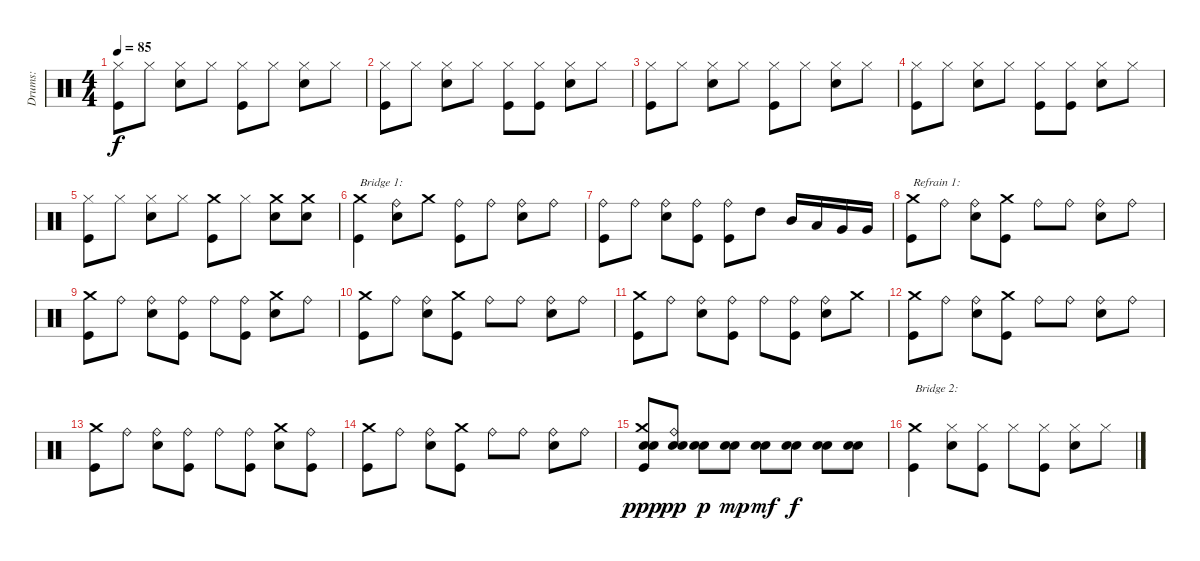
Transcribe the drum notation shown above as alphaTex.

\track ("Drums:" "Drums:") {instrument percussion}
\staff {score}
\articulation defaults
\ts (4 4)
\tempo 85
\clef neutral
\ks c
("Hi-Hat (closed)" "Kick (hit)").8{dy f} "Hi-Hat (closed)".8 ("Hi-Hat (closed)" "Snare (hit) 2").8 "Hi-Hat (closed)".8 ("Hi-Hat (closed)" "Kick (hit)").8 "Hi-Hat (closed)".8 ("Hi-Hat (closed)" "Snare (hit) 2").8 "Hi-Hat (closed)".8 |
("Hi-Hat (closed)" "Kick (hit)").8 "Hi-Hat (closed)".8 ("Hi-Hat (closed)" "Snare (hit) 2").8 "Hi-Hat (closed)".8 ("Hi-Hat (closed)" "Kick (hit)").8 ("Hi-Hat (closed)" "Kick (hit)").8 ("Hi-Hat (closed)" "Snare (hit) 2").8 "Hi-Hat (closed)".8 |
("Hi-Hat (closed)" "Kick (hit)").8 "Hi-Hat (closed)".8 ("Hi-Hat (closed)" "Snare (hit) 2").8 "Hi-Hat (closed)".8 ("Hi-Hat (closed)" "Kick (hit)").8 "Hi-Hat (closed)".8 ("Hi-Hat (closed)" "Snare (hit) 2").8 "Hi-Hat (closed)".8 |
("Hi-Hat (closed)" "Kick (hit)").8 "Hi-Hat (closed)".8 ("Hi-Hat (closed)" "Snare (hit) 2").8 "Hi-Hat (closed)".8 ("Hi-Hat (closed)" "Kick (hit)").8 ("Hi-Hat (closed)" "Kick (hit)").8 ("Hi-Hat (closed)" "Snare (hit) 2").8 "Hi-Hat (closed)".8 |
("Hi-Hat (closed)" "Kick (hit)").8 "Hi-Hat (closed)".8 ("Hi-Hat (closed)" "Snare (hit) 2").8 "Hi-Hat (closed)".8 ("Crash medium (hit)" "Kick (hit)").8 "Hi-Hat (closed)".8 ("Crash medium (hit)" "Snare (hit) 2").8 ("Crash medium (hit)" "Snare (hit) 2").8 |
("Crash medium (hit)" "Kick (hit)").4{txt "Bridge 1:"} ("Ride (bell)" "Snare (hit) 2").8 "Crash medium (hit)".8 ("Ride (bell)" "Kick (hit)").8 "Ride (bell)".8 ("Ride (bell)" "Snare (hit) 2").8 "Ride (bell)".8 |
("Ride (bell)" "Kick (hit)").8 "Ride (bell)".8 ("Ride (bell)" "Snare (hit) 2").8 ("Ride (bell)" "Kick (hit)").8 ("Ride (bell)" "Kick (hit)").8 "High Tom (hit)".8 "Mid Tom (hit)".16 "Low Tom (hit)".16 "Very Low Tom (hit)".16 "Very Low Tom (hit)".16 |
("Crash medium (hit)" "Kick (hit)").8{txt "Refrain 1:"} "Ride (bell)".8 ("Ride (bell)" "Snare (hit) 2").8 ("Crash medium (hit)" "Kick (hit)").8 "Ride (bell)".8 "Ride (bell)".8 ("Ride (bell)" "Snare (hit) 2").8 "Ride (bell)".8 |
("Crash medium (hit)" "Kick (hit)").8 "Ride (bell)".8 ("Ride (bell)" "Snare (hit) 2").8 ("Ride (bell)" "Kick (hit)").8 "Ride (bell)".8 ("Ride (bell)" "Kick (hit)").8 ("Crash medium (hit)" "Snare (hit) 2").8 "Ride (bell)".8 |
("Crash medium (hit)" "Kick (hit)").8 "Ride (bell)".8 ("Ride (bell)" "Snare (hit) 2").8 ("Crash medium (hit)" "Kick (hit)").8 "Ride (bell)".8 "Ride (bell)".8 ("Ride (bell)" "Snare (hit) 2").8 "Ride (bell)".8 |
("Crash medium (hit)" "Kick (hit)").8 "Ride (bell)".8 ("Ride (bell)" "Snare (hit) 2").8 ("Ride (bell)" "Kick (hit)").8 "Ride (bell)".8 ("Ride (bell)" "Kick (hit)").8 ("Ride (bell)" "Snare (hit) 2").8 "Crash medium (hit)".8 |
("Crash medium (hit)" "Kick (hit)").8 "Ride (bell)".8 ("Ride (bell)" "Snare (hit) 2").8 ("Crash medium (hit)" "Kick (hit)").8 "Ride (bell)".8 "Ride (bell)".8 ("Ride (bell)" "Snare (hit) 2").8 "Ride (bell)".8 |
("Crash medium (hit)" "Kick (hit)").8 "Ride (bell)".8 ("Ride (bell)" "Snare (hit) 2").8 ("Ride (bell)" "Kick (hit)").8 "Ride (bell)".8 ("Ride (bell)" "Kick (hit)").8 ("Crash medium (hit)" "Snare (hit) 2").8 ("Ride (bell)" "Kick (hit)").8 |
("Crash medium (hit)" "Kick (hit)").8 "Ride (bell)".8 ("Ride (bell)" "Snare (hit) 2").8 ("Crash medium (hit)" "Kick (hit)").8 "Ride (bell)".8 "Ride (bell)".8 ("Ride (bell)" "Snare (hit) 2").8 "Ride (bell)".8 |
("Crash medium (hit)" "Electric Snare (hit)" "Snare (hit) 2" "Kick (hit)").8{dy ppp} ("Ride (bell)" "Electric Snare (hit)" "Snare (hit) 2").8{dy pp} ("Electric Snare (hit)" "Snare (hit) 2").8{dy p} ("Electric Snare (hit)" "Snare (hit) 2").8{dy mp} ("Electric Snare (hit)" "Snare (hit) 2").8{dy mf} ("Electric Snare (hit)" "Snare (hit) 2").8{dy f} ("Electric Snare (hit)" "Snare (hit) 2").8 ("Electric Snare (hit)" "Snare (hit) 2").8 |
("Crash medium (hit)" "Kick (hit)").4{txt "Bridge 2:"} ("Hi-Hat (closed)" "Snare (hit) 2").8 ("Hi-Hat (closed)" "Kick (hit)").8 "Hi-Hat (closed)".8 ("Hi-Hat (closed)" "Kick (hit)").8 ("Hi-Hat (closed)" "Snare (hit) 2").8 "Hi-Hat (closed)".8
